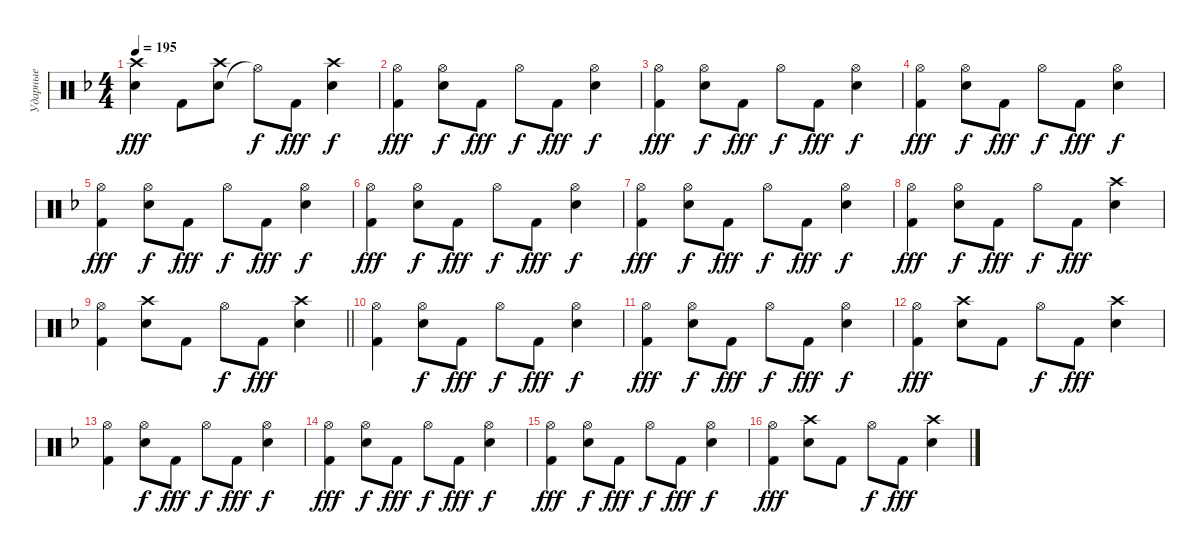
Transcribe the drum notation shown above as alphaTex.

\track ("Ударные" "Ударные") {instrument percussion}
\staff {score}
\articulation defaults
\ts (4 4)
\tempo 195
\clef neutral
\ks f
("Snare (hit) 2" "Crash high (hit)").4{dy fff} "Kick (hit) 2".8 ("Snare (hit) 2" "Crash high (hit)").8 "Hi-Hat (open)"{t}.8{dy f} "Kick (hit) 2".8{dy fff} ("Snare (hit) 2" "Crash high (hit)").4{dy f} |
("Kick (hit) 2" "Hi-Hat (open)").4{dy fff} ("Snare (hit) 2" "Hi-Hat (open)").8{dy f} "Kick (hit) 2".8{dy fff} "Hi-Hat (open)".8{dy f} "Kick (hit) 2".8{dy fff} ("Snare (hit) 2" "Hi-Hat (open)").4{dy f} |
("Kick (hit) 2" "Hi-Hat (open)").4{dy fff} ("Snare (hit) 2" "Hi-Hat (open)").8{dy f} "Kick (hit) 2".8{dy fff} "Hi-Hat (open)".8{dy f} "Kick (hit) 2".8{dy fff} ("Snare (hit) 2" "Hi-Hat (open)").4{dy f} |
("Kick (hit) 2" "Hi-Hat (open)").4{dy fff} ("Snare (hit) 2" "Hi-Hat (open)").8{dy f} "Kick (hit) 2".8{dy fff} "Hi-Hat (open)".8{dy f} "Kick (hit) 2".8{dy fff} ("Snare (hit) 2" "Hi-Hat (open)").4{dy f} |
("Kick (hit) 2" "Hi-Hat (open)").4{dy fff} ("Snare (hit) 2" "Hi-Hat (open)").8{dy f} "Kick (hit) 2".8{dy fff} "Hi-Hat (open)".8{dy f} "Kick (hit) 2".8{dy fff} ("Snare (hit) 2" "Hi-Hat (open)").4{dy f} |
("Kick (hit) 2" "Hi-Hat (open)").4{dy fff} ("Snare (hit) 2" "Hi-Hat (open)").8{dy f} "Kick (hit) 2".8{dy fff} "Hi-Hat (open)".8{dy f} "Kick (hit) 2".8{dy fff} ("Snare (hit) 2" "Hi-Hat (open)").4{dy f} |
("Kick (hit) 2" "Hi-Hat (open)").4{dy fff} ("Snare (hit) 2" "Hi-Hat (open)").8{dy f} "Kick (hit) 2".8{dy fff} "Hi-Hat (open)".8{dy f} "Kick (hit) 2".8{dy fff} ("Snare (hit) 2" "Hi-Hat (open)").4{dy f} |
("Kick (hit) 2" "Hi-Hat (open)").4{dy fff} ("Snare (hit) 2" "Hi-Hat (open)").8{dy f} "Kick (hit) 2".8{dy fff} "Hi-Hat (open)".8{dy f} "Kick (hit) 2".8{dy fff} ("Snare (hit) 2" "Crash high (hit)").4 |
\barLineRight lightlight
("Kick (hit) 2" "Hi-Hat (open)").4 ("Snare (hit) 2" "Crash high (hit)").8 "Kick (hit) 2".8 "Hi-Hat (open)".8{dy f} "Kick (hit) 2".8{dy fff} ("Snare (hit) 2" "Crash high (hit)").4 |
("Kick (hit) 2" "Hi-Hat (open)").4 ("Snare (hit) 2" "Hi-Hat (open)").8{dy f} "Kick (hit) 2".8{dy fff} "Hi-Hat (open)".8{dy f} "Kick (hit) 2".8{dy fff} ("Snare (hit) 2" "Hi-Hat (open)").4{dy f} |
("Kick (hit) 2" "Hi-Hat (open)").4{dy fff} ("Snare (hit) 2" "Hi-Hat (open)").8{dy f} "Kick (hit) 2".8{dy fff} "Hi-Hat (open)".8{dy f} "Kick (hit) 2".8{dy fff} ("Snare (hit) 2" "Hi-Hat (open)").4{dy f} |
("Kick (hit) 2" "Hi-Hat (open)").4{dy fff} ("Snare (hit) 2" "Crash high (hit)").8 "Kick (hit) 2".8 "Hi-Hat (open)".8{dy f} "Kick (hit) 2".8{dy fff} ("Snare (hit) 2" "Crash high (hit)").4 |
("Kick (hit) 2" "Hi-Hat (open)").4 ("Snare (hit) 2" "Hi-Hat (open)").8{dy f} "Kick (hit) 2".8{dy fff} "Hi-Hat (open)".8{dy f} "Kick (hit) 2".8{dy fff} ("Snare (hit) 2" "Hi-Hat (open)").4{dy f} |
("Kick (hit) 2" "Hi-Hat (open)").4{dy fff} ("Snare (hit) 2" "Hi-Hat (open)").8{dy f} "Kick (hit) 2".8{dy fff} "Hi-Hat (open)".8{dy f} "Kick (hit) 2".8{dy fff} ("Snare (hit) 2" "Hi-Hat (open)").4{dy f} |
("Kick (hit) 2" "Hi-Hat (open)").4{dy fff} ("Snare (hit) 2" "Hi-Hat (open)").8{dy f} "Kick (hit) 2".8{dy fff} "Hi-Hat (open)".8{dy f} "Kick (hit) 2".8{dy fff} ("Snare (hit) 2" "Hi-Hat (open)").4{dy f} |
("Kick (hit) 2" "Hi-Hat (open)").4{dy fff} ("Snare (hit) 2" "Crash high (hit)").8 "Kick (hit) 2".8 "Hi-Hat (open)".8{dy f} "Kick (hit) 2".8{dy fff} ("Snare (hit) 2" "Crash high (hit)").4
